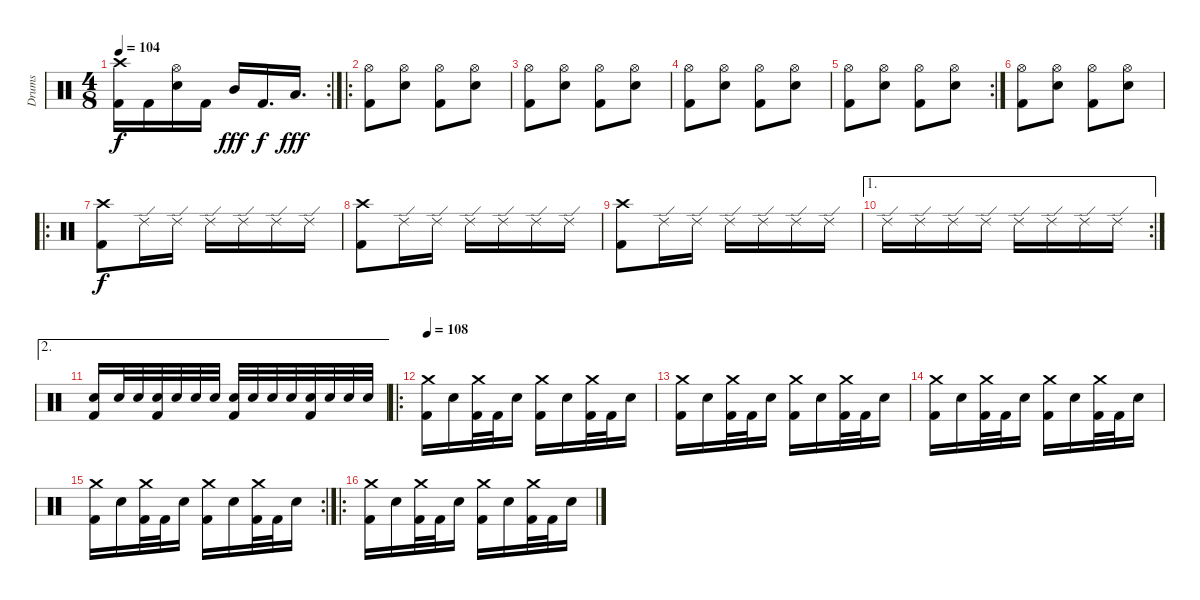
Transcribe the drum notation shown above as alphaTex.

\track ("Drums" "Drums") {instrument percussion}
\staff {score}
\articulation defaults
\rc 2
\ts (4 8)
\tempo 104
\clef neutral
\ks c
("Crash high (hit)" "Kick (hit) 2").16{dy f} "Kick (hit) 2".16 ("Hi-Hat (open)" "Electric Snare (hit)").16 "Kick (hit) 2".16 "Mid Tom (hit)".16{dy fff} "Kick (hit) 2".16{d dy f} "Low Tom (hit)".16{d dy fff} |
\ro
("Hi-Hat (open)" "Kick (hit) 2").8 ("Hi-Hat (open)" "Electric Snare (hit)").8 ("Hi-Hat (open)" "Kick (hit) 2").8 ("Hi-Hat (open)" "Electric Snare (hit)").8 |
("Hi-Hat (open)" "Kick (hit) 2").8 ("Hi-Hat (open)" "Electric Snare (hit)").8 ("Hi-Hat (open)" "Kick (hit) 2").8 ("Hi-Hat (open)" "Electric Snare (hit)").8 |
("Hi-Hat (open)" "Kick (hit) 2").8 ("Hi-Hat (open)" "Electric Snare (hit)").8 ("Hi-Hat (open)" "Kick (hit) 2").8 ("Hi-Hat (open)" "Electric Snare (hit)").8 |
\rc 2
("Hi-Hat (open)" "Kick (hit) 2").8 ("Hi-Hat (open)" "Electric Snare (hit)").8 ("Hi-Hat (open)" "Kick (hit) 2").8 ("Hi-Hat (open)" "Electric Snare (hit)").8 |
("Hi-Hat (open)" "Kick (hit) 2").8 ("Hi-Hat (open)" "Electric Snare (hit)").8 ("Hi-Hat (open)" "Kick (hit) 2").8 ("Hi-Hat (open)" "Electric Snare (hit)").8 |
\ro
("Crash high (hit)" "Kick (hit) 2").8{dy f} "Ride (edge) 2".16 "Ride (edge) 2".16 "Ride (edge) 2".16 "Ride (edge) 2".16 "Ride (edge) 2".16 "Ride (edge) 2".16 |
("Crash high (hit)" "Kick (hit) 2").8 "Ride (edge) 2".16 "Ride (edge) 2".16 "Ride (edge) 2".16 "Ride (edge) 2".16 "Ride (edge) 2".16 "Ride (edge) 2".16 |
("Crash high (hit)" "Kick (hit) 2").8 "Ride (edge) 2".16 "Ride (edge) 2".16 "Ride (edge) 2".16 "Ride (edge) 2".16 "Ride (edge) 2".16 "Ride (edge) 2".16 |
\ae 1
\rc 2 "Ride (edge) 2".16 "Ride (edge) 2".16 "Ride (edge) 2".16 "Ride (edge) 2".16 "Ride (edge) 2".16 "Ride (edge) 2".16 "Ride (edge) 2".16 "Ride (edge) 2".16
|
\ae 2
("Electric Snare (hit)" "Kick (hit) 2").16 "Electric Snare (hit)".32 "Electric Snare (hit)".32 ("Electric Snare (hit)" "Kick (hit) 2").32 "Electric Snare (hit)".32 "Electric Snare (hit)".32 "Electric Snare (hit)".32 ("Electric Snare (hit)" "Kick (hit) 2").32 "Electric Snare (hit)".32 "Electric Snare (hit)".32 "Electric Snare (hit)".32 ("Electric Snare (hit)" "Kick (hit) 2").32 "Electric Snare (hit)".32 "Electric Snare (hit)".32 "Electric Snare (hit)".32 |
\ro
\tempo 108
("Crash medium (hit)" "Kick (hit) 2").16 "Electric Snare (hit)".16 ("Crash medium (hit)" "Kick (hit) 2").32 "Kick (hit) 2".32 "Electric Snare (hit)".16 ("Crash medium (hit)" "Kick (hit) 2").16 "Electric Snare (hit)".16 ("Crash medium (hit)" "Kick (hit) 2").32 "Kick (hit) 2".32 "Electric Snare (hit)".16 |
("Crash medium (hit)" "Kick (hit) 2").16 "Electric Snare (hit)".16 ("Crash medium (hit)" "Kick (hit) 2").32 "Kick (hit) 2".32 "Electric Snare (hit)".16 ("Crash medium (hit)" "Kick (hit) 2").16 "Electric Snare (hit)".16 ("Crash medium (hit)" "Kick (hit) 2").32 "Kick (hit) 2".32 "Electric Snare (hit)".16 |
("Crash medium (hit)" "Kick (hit) 2").16 "Electric Snare (hit)".16 ("Crash medium (hit)" "Kick (hit) 2").32 "Kick (hit) 2".32 "Electric Snare (hit)".16 ("Crash medium (hit)" "Kick (hit) 2").16 "Electric Snare (hit)".16 ("Crash medium (hit)" "Kick (hit) 2").32 "Kick (hit) 2".32 "Electric Snare (hit)".16 |
\rc 2
("Crash medium (hit)" "Kick (hit) 2").16 "Electric Snare (hit)".16 ("Crash medium (hit)" "Kick (hit) 2").32 "Kick (hit) 2".32 "Electric Snare (hit)".16 ("Crash medium (hit)" "Kick (hit) 2").16 "Electric Snare (hit)".16 ("Crash medium (hit)" "Kick (hit) 2").32 "Kick (hit) 2".32 "Electric Snare (hit)".16 |
\ro
("Crash medium (hit)" "Kick (hit) 2").16 "Electric Snare (hit)".16 ("Crash medium (hit)" "Kick (hit) 2").32 "Kick (hit) 2".32 "Electric Snare (hit)".16 ("Crash medium (hit)" "Kick (hit) 2").16 "Electric Snare (hit)".16 ("Crash medium (hit)" "Kick (hit) 2").32 "Kick (hit) 2".32 "Electric Snare (hit)".16
